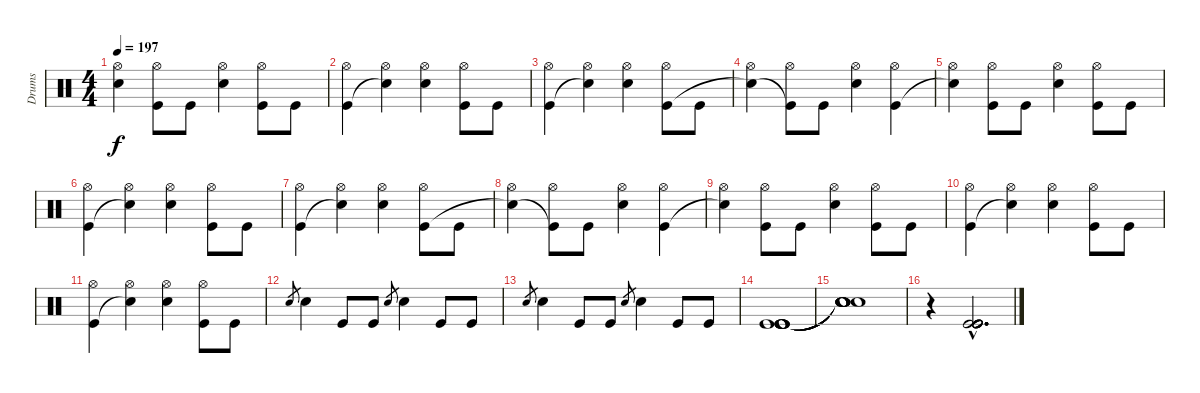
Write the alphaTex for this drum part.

\track ("Drums" "Drums") {instrument percussion}
\staff {score}
\articulation defaults
\ts (4 4)
\tempo 197
\clef neutral
\ks c
("Hi-Hat (open)" "Snare (hit)"{t}).4{dy f} ("Hi-Hat (open)" "Kick (hit)").8 "Kick (hit)".8 ("Hi-Hat (open)" "Snare (hit) 2").4 ("Hi-Hat (open)" "Kick (hit)").8 "Kick (hit)".8 |
("Hi-Hat (open)" "Kick (hit)").4 ("Hi-Hat (open)" "Snare (hit)"{t}).4 ("Hi-Hat (open)" "Snare (hit) 2").4 ("Hi-Hat (open)" "Kick (hit)").8 "Kick (hit)".8 |
("Hi-Hat (open)" "Kick (hit)").4 ("Hi-Hat (open)" "Snare (hit)"{t}).4 ("Hi-Hat (open)" "Snare (hit) 2").4 ("Hi-Hat (open)" "Kick (hit)").8 "Kick (hit)".8 |
("Hi-Hat (open)" "Snare (hit)"{t}).4 ("Hi-Hat (open)" "Kick (hit)"{t}).8 "Kick (hit)".8 ("Hi-Hat (open)" "Snare (hit) 2").4 ("Hi-Hat (open)" "Kick (hit)").4 |
("Hi-Hat (open)" "Snare (hit)"{t}).4 ("Hi-Hat (open)" "Kick (hit)").8 "Kick (hit)".8 ("Hi-Hat (open)" "Snare (hit) 2").4 ("Hi-Hat (open)" "Kick (hit)").8 "Kick (hit)".8 |
("Hi-Hat (open)" "Kick (hit)").4 ("Hi-Hat (open)" "Snare (hit)"{t}).4 ("Hi-Hat (open)" "Snare (hit) 2").4 ("Hi-Hat (open)" "Kick (hit)").8 "Kick (hit)".8 |
("Hi-Hat (open)" "Kick (hit)").4 ("Hi-Hat (open)" "Snare (hit)"{t}).4 ("Hi-Hat (open)" "Snare (hit) 2").4 ("Hi-Hat (open)" "Kick (hit)").8 "Kick (hit)".8 |
("Hi-Hat (open)" "Snare (hit)"{t}).4 ("Hi-Hat (open)" "Kick (hit)"{t}).8 "Kick (hit)".8 ("Hi-Hat (open)" "Snare (hit) 2").4 ("Hi-Hat (open)" "Kick (hit)").4 |
("Hi-Hat (open)" "Snare (hit)"{t}).4 ("Hi-Hat (open)" "Kick (hit)").8 "Kick (hit)".8 ("Hi-Hat (open)" "Snare (hit) 2").4 ("Hi-Hat (open)" "Kick (hit)").8 "Kick (hit)".8 |
("Hi-Hat (open)" "Kick (hit)").4 ("Hi-Hat (open)" "Snare (hit)"{t}).4 ("Hi-Hat (open)" "Snare (hit) 2").4 ("Hi-Hat (open)" "Kick (hit)").8 "Kick (hit)".8 |
("Hi-Hat (open)" "Kick (hit)").4 ("Hi-Hat (open)" "Snare (hit)"{t}).4 ("Hi-Hat (open)" "Snare (hit) 2").4 ("Hi-Hat (open)" "Kick (hit)").8 "Kick (hit)".8 |
"Snare (hit) 2".8{gr} "Snare (hit) 2".4 "Kick (hit)".8 "Kick (hit)".8 "Snare (hit) 2".8{gr} "Snare (hit) 2".4 "Kick (hit)".8 "Kick (hit)".8 |
"Snare (hit) 2".8{gr} "Snare (hit) 2".4 "Kick (hit)".8 "Kick (hit)".8 "Snare (hit) 2".8{gr} "Snare (hit) 2".4 "Kick (hit)".8 "Kick (hit)".8 |
("Kick (hit)" "Kick (hit)" "Kick (hit)" "Kick (hit)" "Kick (hit)" "Kick (hit)").1 |
("Snare (hit)"{t} "Snare (hit)"{t} "Snare (hit)"{t} "Snare (hit)"{t} "Snare (hit)"{t} "Snare (hit)"{t}).1 |
r.4 ("Kick (hit)"{hac} "Kick (hit)"{hac} "Kick (hit)"{hac} "Kick (hit)"{hac} "Kick (hit)"{hac} "Kick (hit)"{hac}).2{d}
